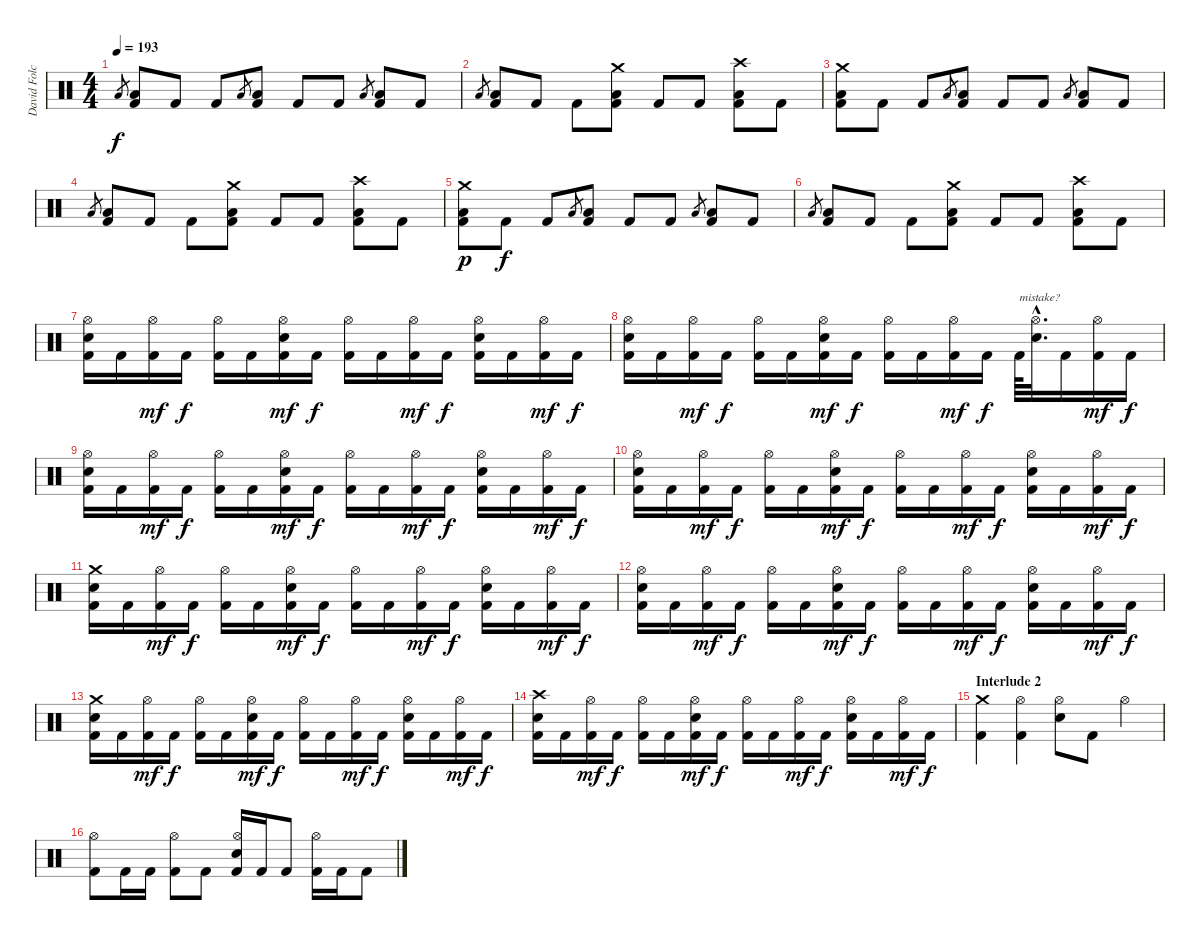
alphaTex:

\track ("David Folchitto" "David Folc") {instrument percussion}
\staff {score}
\articulation defaults
\ts (4 4)
\tempo 193
\clef neutral
\ks c "Low Tom (hit)".8{gr dy f}
("Low Tom (hit)" "Kick (hit) 2").8 "Kick (hit) 2".8 "Kick (hit) 2".8 "Low Tom (hit)".8{gr} ("Low Tom (hit)" "Kick (hit) 2").8 "Kick (hit) 2".8 "Kick (hit) 2".8 "Low Tom (hit)".8{gr} ("Low Tom (hit)" "Kick (hit) 2").8 "Kick (hit) 2".8 |
"Low Tom (hit)".8{gr} ("Low Tom (hit)" "Kick (hit) 2").8 "Kick (hit) 2".8 "Kick (hit) 2".8 ("Crash medium (hit)" "Low Tom (hit)" "Kick (hit) 2").8 "Kick (hit) 2".8 "Kick (hit) 2".8 ("Crash high (hit)" "Low Tom (hit)" "Kick (hit) 2").8 "Kick (hit) 2".8 |
("Crash medium (hit)" "Low Tom (hit)" "Kick (hit) 2").8 "Kick (hit) 2".8 "Kick (hit) 2".8 "Low Tom (hit)".8{gr} ("Low Tom (hit)" "Kick (hit) 2").8 "Kick (hit) 2".8 "Kick (hit) 2".8 "Low Tom (hit)".8{gr} ("Low Tom (hit)" "Kick (hit) 2").8 "Kick (hit) 2".8 |
"Low Tom (hit)".8{gr} ("Low Tom (hit)" "Kick (hit) 2").8 "Kick (hit) 2".8 "Kick (hit) 2".8 ("Crash medium (hit)" "Low Tom (hit)" "Kick (hit) 2").8 "Kick (hit) 2".8 "Kick (hit) 2".8 ("Crash high (hit)" "Low Tom (hit)" "Kick (hit) 2").8 "Kick (hit) 2".8 |
("Crash medium (hit)" "Low Tom (hit)" "Kick (hit) 2").8{dy p} "Kick (hit) 2".8{dy f} "Kick (hit) 2".8 "Low Tom (hit)".8{gr} ("Low Tom (hit)" "Kick (hit) 2").8 "Kick (hit) 2".8 "Kick (hit) 2".8 "Low Tom (hit)".8{gr} ("Low Tom (hit)" "Kick (hit) 2").8 "Kick (hit) 2".8 |
"Low Tom (hit)".8{gr} ("Low Tom (hit)" "Kick (hit) 2").8 "Kick (hit) 2".8 "Kick (hit) 2".8 ("Crash medium (hit)" "Low Tom (hit)" "Kick (hit) 2").8 "Kick (hit) 2".8 "Kick (hit) 2".8 ("Crash high (hit)" "Low Tom (hit)" "Kick (hit) 2").8 "Kick (hit) 2".8 |
("Hi-Hat (open)" "Snare (hit) 2" "Kick (hit) 2").16 "Kick (hit) 2".16 ("Hi-Hat (open)" "Kick (hit) 2").16{dy mf} "Kick (hit) 2".16{dy f} ("Hi-Hat (open)" "Kick (hit) 2").16 "Kick (hit) 2".16 ("Hi-Hat (open)" "Snare (hit) 2" "Kick (hit) 2").16{dy mf} "Kick (hit) 2".16{dy f} ("Hi-Hat (open)" "Kick (hit) 2").16 "Kick (hit) 2".16 ("Hi-Hat (open)" "Kick (hit) 2").16{dy mf} "Kick (hit) 2".16{dy f} ("Hi-Hat (open)" "Snare (hit) 2" "Kick (hit) 2").16 "Kick (hit) 2".16 ("Hi-Hat (open)" "Kick (hit) 2").16{dy mf} "Kick (hit) 2".16{dy f} |
("Hi-Hat (open)" "Snare (hit) 2" "Kick (hit) 2").16 "Kick (hit) 2".16 ("Hi-Hat (open)" "Kick (hit) 2").16{dy mf} "Kick (hit) 2".16{dy f} ("Hi-Hat (open)" "Kick (hit) 2").16 "Kick (hit) 2".16 ("Hi-Hat (open)" "Snare (hit) 2" "Kick (hit) 2").16{dy mf} "Kick (hit) 2".16{dy f} ("Hi-Hat (open)" "Kick (hit) 2").16 "Kick (hit) 2".16 ("Hi-Hat (open)" "Kick (hit) 2").16{dy mf} "Kick (hit) 2".16{dy f} "Kick (hit) 2".64{txt "mistake?"} ("Hi-Hat (open)"{hac} "Snare (hit) 2"{hac}).32{d} "Kick (hit) 2".16 ("Hi-Hat (open)" "Kick (hit) 2").16{dy mf} "Kick (hit) 2".16{dy f} |
("Hi-Hat (open)" "Snare (hit) 2" "Kick (hit) 2").16 "Kick (hit) 2".16 ("Hi-Hat (open)" "Kick (hit) 2").16{dy mf} "Kick (hit) 2".16{dy f} ("Hi-Hat (open)" "Kick (hit) 2").16 "Kick (hit) 2".16 ("Hi-Hat (open)" "Snare (hit) 2" "Kick (hit) 2").16{dy mf} "Kick (hit) 2".16{dy f} ("Hi-Hat (open)" "Kick (hit) 2").16 "Kick (hit) 2".16 ("Hi-Hat (open)" "Kick (hit) 2").16{dy mf} "Kick (hit) 2".16{dy f} ("Hi-Hat (open)" "Snare (hit) 2" "Kick (hit) 2").16 "Kick (hit) 2".16 ("Hi-Hat (open)" "Kick (hit) 2").16{dy mf} "Kick (hit) 2".16{dy f} |
("Hi-Hat (open)" "Snare (hit) 2" "Kick (hit) 2").16 "Kick (hit) 2".16 ("Hi-Hat (open)" "Kick (hit) 2").16{dy mf} "Kick (hit) 2".16{dy f} ("Hi-Hat (open)" "Kick (hit) 2").16 "Kick (hit) 2".16 ("Hi-Hat (open)" "Snare (hit) 2" "Kick (hit) 2").16{dy mf} "Kick (hit) 2".16{dy f} ("Hi-Hat (open)" "Kick (hit) 2").16 "Kick (hit) 2".16 ("Hi-Hat (open)" "Kick (hit) 2").16{dy mf} "Kick (hit) 2".16{dy f} ("Hi-Hat (open)" "Snare (hit) 2" "Kick (hit) 2").16 "Kick (hit) 2".16 ("Hi-Hat (open)" "Kick (hit) 2").16{dy mf} "Kick (hit) 2".16{dy f} |
("Crash medium (hit)" "Snare (hit) 2" "Kick (hit) 2").16 "Kick (hit) 2".16 ("Hi-Hat (open)" "Kick (hit) 2").16{dy mf} "Kick (hit) 2".16{dy f} ("Hi-Hat (open)" "Kick (hit) 2").16 "Kick (hit) 2".16 ("Hi-Hat (open)" "Snare (hit) 2" "Kick (hit) 2").16{dy mf} "Kick (hit) 2".16{dy f} ("Hi-Hat (open)" "Kick (hit) 2").16 "Kick (hit) 2".16 ("Hi-Hat (open)" "Kick (hit) 2").16{dy mf} "Kick (hit) 2".16{dy f} ("Hi-Hat (open)" "Snare (hit) 2" "Kick (hit) 2").16 "Kick (hit) 2".16 ("Hi-Hat (open)" "Kick (hit) 2").16{dy mf} "Kick (hit) 2".16{dy f} |
("Hi-Hat (open)" "Snare (hit) 2" "Kick (hit) 2").16 "Kick (hit) 2".16 ("Hi-Hat (open)" "Kick (hit) 2").16{dy mf} "Kick (hit) 2".16{dy f} ("Hi-Hat (open)" "Kick (hit) 2").16 "Kick (hit) 2".16 ("Hi-Hat (open)" "Snare (hit) 2" "Kick (hit) 2").16{dy mf} "Kick (hit) 2".16{dy f} ("Hi-Hat (open)" "Kick (hit) 2").16 "Kick (hit) 2".16 ("Hi-Hat (open)" "Kick (hit) 2").16{dy mf} "Kick (hit) 2".16{dy f} ("Hi-Hat (open)" "Snare (hit) 2" "Kick (hit) 2").16 "Kick (hit) 2".16 ("Hi-Hat (open)" "Kick (hit) 2").16{dy mf} "Kick (hit) 2".16{dy f} |
("Crash medium (hit)" "Snare (hit) 2" "Kick (hit) 2").16 "Kick (hit) 2".16 ("Hi-Hat (open)" "Kick (hit) 2").16{dy mf} "Kick (hit) 2".16{dy f} ("Hi-Hat (open)" "Kick (hit) 2").16 "Kick (hit) 2".16 ("Hi-Hat (open)" "Snare (hit) 2" "Kick (hit) 2").16{dy mf} "Kick (hit) 2".16{dy f} ("Hi-Hat (open)" "Kick (hit) 2").16 "Kick (hit) 2".16 ("Hi-Hat (open)" "Kick (hit) 2").16{dy mf} "Kick (hit) 2".16{dy f} ("Hi-Hat (open)" "Snare (hit) 2" "Kick (hit) 2").16 "Kick (hit) 2".16 ("Hi-Hat (open)" "Kick (hit) 2").16{dy mf} "Kick (hit) 2".16{dy f} |
("Crash high (hit)" "Snare (hit) 2" "Kick (hit) 2").16 "Kick (hit) 2".16 ("Hi-Hat (open)" "Kick (hit) 2").16{dy mf} "Kick (hit) 2".16{dy f} ("Hi-Hat (open)" "Kick (hit) 2").16 "Kick (hit) 2".16 ("Hi-Hat (open)" "Snare (hit) 2" "Kick (hit) 2").16{dy mf} "Kick (hit) 2".16{dy f} ("Hi-Hat (open)" "Kick (hit) 2").16 "Kick (hit) 2".16 ("Hi-Hat (open)" "Kick (hit) 2").16{dy mf} "Kick (hit) 2".16{dy f} ("Hi-Hat (open)" "Snare (hit) 2" "Kick (hit) 2").16 "Kick (hit) 2".16 ("Hi-Hat (open)" "Kick (hit) 2").16{dy mf} "Kick (hit) 2".16{dy f} |
\section ("" "Interlude 2")
("Crash medium (hit)" "Kick (hit) 2").4 ("Hi-Hat (open)" "Kick (hit) 2").4 ("Hi-Hat (open)" "Snare (hit) 2").8 "Kick (hit) 2".8 "Hi-Hat (open)".4 |
("Hi-Hat (open)" "Kick (hit) 2").8 "Kick (hit) 2".16 "Kick (hit) 2".16 ("Hi-Hat (open)" "Kick (hit) 2").8 "Kick (hit) 2".8 ("Hi-Hat (open)" "Snare (hit) 2" "Kick (hit) 2").16 "Kick (hit) 2".16 "Kick (hit) 2".8 ("Hi-Hat (open)" "Kick (hit) 2").16 "Kick (hit) 2".16 "Kick (hit) 2".8
